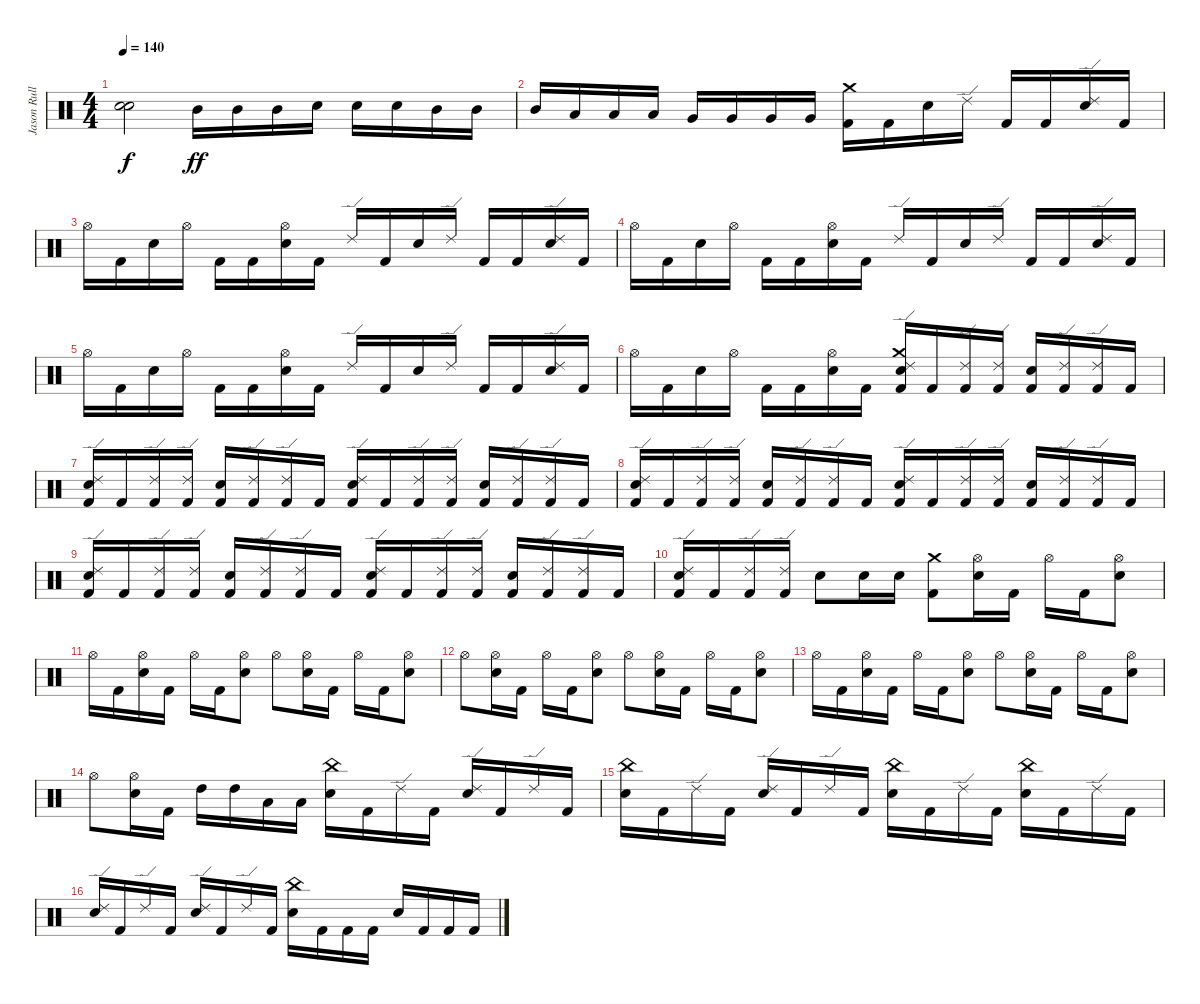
\track ("Jason Rullo" "Jason Rull") {instrument percussion}
\staff {score}
\articulation defaults
\ts (4 4)
\tempo 140
\clef neutral
\ks c
("Snare (hit)"{t} "Snare (hit)"{t}).2{dy f} "Mid Tom (hit)".16{dy ff} "Mid Tom (hit)".16 "Mid Tom (hit)".16 "Electric Snare (hit)".16 "Electric Snare (hit)".16 "Electric Snare (hit)".16 "Mid Tom (hit)".16 "Mid Tom (hit)".16 |
"Mid Tom (hit)".16 "Low Tom (hit)".16 "Low Tom (hit)".16 "Low Tom (hit)".16 "Very Low Tom (hit)".16 "Very Low Tom (hit)".16 "Very Low Tom (hit)".16 "Very Low Tom (hit)".16 ("Crash medium (hit)" "Kick (hit) 2").16 "Kick (hit) 2".16 "Electric Snare (hit)".16 "Ride (edge) 2".16 "Kick (hit) 2".16 "Kick (hit) 2".16 ("Electric Snare (hit)" "Ride (edge) 2").16 "Kick (hit) 2".16 |
"Hi-Hat (open)".16 "Kick (hit) 2".16 "Electric Snare (hit)".16 "Hi-Hat (open)".16 "Kick (hit) 2".16 "Kick (hit) 2".16 ("Electric Snare (hit)" "Hi-Hat (open)").16 "Kick (hit) 2".16 "Ride (edge) 2".16 "Kick (hit) 2".16 "Electric Snare (hit)".16 "Ride (edge) 2".16 "Kick (hit) 2".16 "Kick (hit) 2".16 ("Electric Snare (hit)" "Ride (edge) 2").16 "Kick (hit) 2".16 |
"Hi-Hat (open)".16 "Kick (hit) 2".16 "Electric Snare (hit)".16 "Hi-Hat (open)".16 "Kick (hit) 2".16 "Kick (hit) 2".16 ("Electric Snare (hit)" "Hi-Hat (open)").16 "Kick (hit) 2".16 "Ride (edge) 2".16 "Kick (hit) 2".16 "Electric Snare (hit)".16 "Ride (edge) 2".16 "Kick (hit) 2".16 "Kick (hit) 2".16 ("Electric Snare (hit)" "Ride (edge) 2").16 "Kick (hit) 2".16 |
"Hi-Hat (open)".16 "Kick (hit) 2".16 "Electric Snare (hit)".16 "Hi-Hat (open)".16 "Kick (hit) 2".16 "Kick (hit) 2".16 ("Electric Snare (hit)" "Hi-Hat (open)").16 "Kick (hit) 2".16 "Ride (edge) 2".16 "Kick (hit) 2".16 "Electric Snare (hit)".16 "Ride (edge) 2".16 "Kick (hit) 2".16 "Kick (hit) 2".16 ("Electric Snare (hit)" "Ride (edge) 2").16 "Kick (hit) 2".16 |
"Hi-Hat (open)".16 "Kick (hit) 2".16 "Electric Snare (hit)".16 "Hi-Hat (open)".16 "Kick (hit) 2".16 "Kick (hit) 2".16 ("Electric Snare (hit)" "Hi-Hat (open)").16 "Kick (hit) 2".16 ("Electric Snare (hit)" "Crash medium (hit)" "Kick (hit) 2" "Ride (edge) 2").16 "Kick (hit) 2".16 ("Kick (hit) 2" "Ride (edge) 2").16 ("Kick (hit) 2" "Ride (edge) 2").16 ("Electric Snare (hit)" "Kick (hit) 2").16 ("Kick (hit) 2" "Ride (edge) 2").16 ("Kick (hit) 2" "Ride (edge) 2").16 "Kick (hit) 2".16 |
("Electric Snare (hit)" "Ride (edge) 2" "Kick (hit) 2").16 "Kick (hit) 2".16 ("Kick (hit) 2" "Ride (edge) 2").16 ("Kick (hit) 2" "Ride (edge) 2").16 ("Electric Snare (hit)" "Kick (hit) 2").16 ("Kick (hit) 2" "Ride (edge) 2").16 ("Kick (hit) 2" "Ride (edge) 2").16 "Kick (hit) 2".16 ("Electric Snare (hit)" "Ride (edge) 2" "Kick (hit) 2").16 "Kick (hit) 2".16 ("Kick (hit) 2" "Ride (edge) 2").16 ("Kick (hit) 2" "Ride (edge) 2").16 ("Electric Snare (hit)" "Kick (hit) 2").16 ("Kick (hit) 2" "Ride (edge) 2").16 ("Kick (hit) 2" "Ride (edge) 2").16 "Kick (hit) 2".16 |
("Electric Snare (hit)" "Ride (edge) 2" "Kick (hit) 2").16 "Kick (hit) 2".16 ("Kick (hit) 2" "Ride (edge) 2").16 ("Kick (hit) 2" "Ride (edge) 2").16 ("Electric Snare (hit)" "Kick (hit) 2").16 ("Kick (hit) 2" "Ride (edge) 2").16 ("Kick (hit) 2" "Ride (edge) 2").16 "Kick (hit) 2".16 ("Electric Snare (hit)" "Ride (edge) 2" "Kick (hit) 2").16 "Kick (hit) 2".16 ("Kick (hit) 2" "Ride (edge) 2").16 ("Kick (hit) 2" "Ride (edge) 2").16 ("Electric Snare (hit)" "Kick (hit) 2").16 ("Kick (hit) 2" "Ride (edge) 2").16 ("Kick (hit) 2" "Ride (edge) 2").16 "Kick (hit) 2".16 |
("Electric Snare (hit)" "Ride (edge) 2" "Kick (hit) 2").16 "Kick (hit) 2".16 ("Kick (hit) 2" "Ride (edge) 2").16 ("Kick (hit) 2" "Ride (edge) 2").16 ("Electric Snare (hit)" "Kick (hit) 2").16 ("Kick (hit) 2" "Ride (edge) 2").16 ("Kick (hit) 2" "Ride (edge) 2").16 "Kick (hit) 2".16 ("Electric Snare (hit)" "Ride (edge) 2" "Kick (hit) 2").16 "Kick (hit) 2".16 ("Kick (hit) 2" "Ride (edge) 2").16 ("Kick (hit) 2" "Ride (edge) 2").16 ("Electric Snare (hit)" "Kick (hit) 2").16 ("Kick (hit) 2" "Ride (edge) 2").16 ("Kick (hit) 2" "Ride (edge) 2").16 "Kick (hit) 2".16 |
("Electric Snare (hit)" "Ride (edge) 2" "Kick (hit) 2").16 "Kick (hit) 2".16 ("Kick (hit) 2" "Ride (edge) 2").16 ("Kick (hit) 2" "Ride (edge) 2").16 "Electric Snare (hit)".8 "Electric Snare (hit)".16 "Electric Snare (hit)".16 ("Crash medium (hit)" "Kick (hit) 2").8 ("Electric Snare (hit)" "Hi-Hat (open)").16 "Kick (hit) 2".16 "Hi-Hat (open)".16 "Kick (hit) 2".16 ("Electric Snare (hit)" "Hi-Hat (open)").8 |
"Hi-Hat (open)".16 "Kick (hit) 2".16 ("Electric Snare (hit)" "Hi-Hat (open)").16 "Kick (hit) 2".16 "Hi-Hat (open)".16 "Kick (hit) 2".16 ("Electric Snare (hit)" "Hi-Hat (open)").8 "Hi-Hat (open)".8 ("Electric Snare (hit)" "Hi-Hat (open)").16 "Kick (hit) 2".16 "Hi-Hat (open)".16 "Kick (hit) 2".16 ("Electric Snare (hit)" "Hi-Hat (open)").8 |
"Hi-Hat (open)".8 ("Electric Snare (hit)" "Hi-Hat (open)").16 "Kick (hit) 2".16 "Hi-Hat (open)".16 "Kick (hit) 2".16 ("Electric Snare (hit)" "Hi-Hat (open)").8 "Hi-Hat (open)".8 ("Electric Snare (hit)" "Hi-Hat (open)").16 "Kick (hit) 2".16 "Hi-Hat (open)".16 "Kick (hit) 2".16 ("Electric Snare (hit)" "Hi-Hat (open)").8 |
"Hi-Hat (open)".16 "Kick (hit) 2".16 ("Electric Snare (hit)" "Hi-Hat (open)").16 "Kick (hit) 2".16 "Hi-Hat (open)".16 "Kick (hit) 2".16 ("Electric Snare (hit)" "Hi-Hat (open)").8 "Hi-Hat (open)".8 ("Electric Snare (hit)" "Hi-Hat (open)").16 "Kick (hit) 2".16 "Hi-Hat (open)".16 "Kick (hit) 2".16 ("Electric Snare (hit)" "Hi-Hat (open)").8 |
"Hi-Hat (open)".8 ("Electric Snare (hit)" "Hi-Hat (open)").16 "Kick (hit) 2".16 "High Tom (hit)".16 "High Tom (hit)".16 "Low Tom (hit)".16 "Low Tom (hit)".16 ("Electric Snare (hit)" "China (hit)").16 "Kick (hit) 2".16 "Ride (edge) 2".16 "Kick (hit) 2".16 ("Electric Snare (hit)" "Ride (edge) 2").16 "Kick (hit) 2".16 "Ride (edge) 2".16 "Kick (hit) 2".16 |
("Electric Snare (hit)" "China (hit)").16 "Kick (hit) 2".16 "Ride (edge) 2".16 "Kick (hit) 2".16 ("Electric Snare (hit)" "Ride (edge) 2").16 "Kick (hit) 2".16 "Ride (edge) 2".16 "Kick (hit) 2".16 ("Electric Snare (hit)" "China (hit)").16 "Kick (hit) 2".16 "Ride (edge) 2".16 "Kick (hit) 2".16 ("Electric Snare (hit)" "China (hit)").16 "Kick (hit) 2".16 "Ride (edge) 2".16 "Kick (hit) 2".16 |
("Electric Snare (hit)" "Ride (edge) 2").16 "Kick (hit) 2".16 "Ride (edge) 2".16 "Kick (hit) 2".16 ("Electric Snare (hit)" "Ride (edge) 2").16 "Kick (hit) 2".16 "Ride (edge) 2".16 "Kick (hit) 2".16 ("Electric Snare (hit)" "China (hit)").16 "Kick (hit) 2".16 "Kick (hit) 2".16 "Kick (hit) 2".16 "Electric Snare (hit)".16 "Kick (hit) 2".16 "Kick (hit) 2".16 "Kick (hit) 2".16
